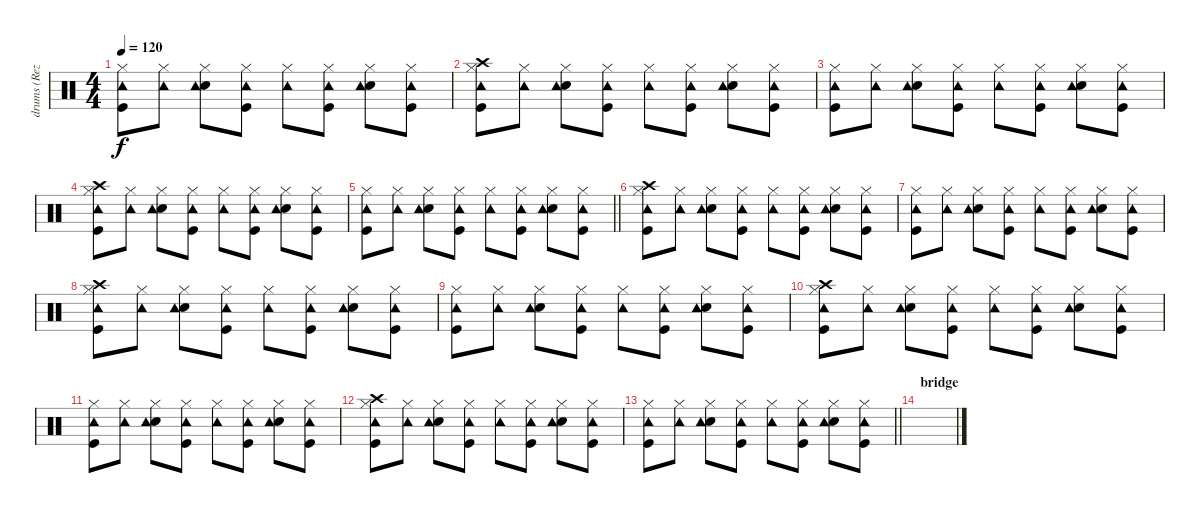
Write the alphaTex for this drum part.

\track ("drums (Reza)" "drums (Rez") {instrument percussion}
\staff {score}
\articulation defaults
\ts (4 4)
\tempo 120
\clef neutral
\ks c
("Hi-Hat (closed)" "Kick (hit)" "Tambourine (hit)").8{dy f} ("Hi-Hat (closed)" "Tambourine (hit)").8 ("Hi-Hat (closed)" "Snare (hit) 2" "Tambourine (hit)").8 ("Hi-Hat (closed)" "Kick (hit)" "Tambourine (hit)").8 ("Hi-Hat (closed)" "Tambourine (hit)").8 ("Hi-Hat (closed)" "Kick (hit)" "Tambourine (hit)").8 ("Hi-Hat (closed)" "Snare (hit) 2" "Tambourine (hit)").8 ("Hi-Hat (closed)" "Kick (hit)" "Tambourine (hit)").8 |
("Hi-Hat (closed)" "Kick (hit)" "Crash high (hit)" "Tambourine (hit)").8 ("Hi-Hat (closed)" "Tambourine (hit)").8 ("Hi-Hat (closed)" "Snare (hit) 2" "Tambourine (hit)").8 ("Hi-Hat (closed)" "Kick (hit)" "Tambourine (hit)").8 ("Hi-Hat (closed)" "Tambourine (hit)").8 ("Hi-Hat (closed)" "Kick (hit)" "Tambourine (hit)").8 ("Hi-Hat (closed)" "Snare (hit) 2" "Tambourine (hit)").8 ("Hi-Hat (closed)" "Kick (hit)" "Tambourine (hit)").8 |
("Hi-Hat (closed)" "Kick (hit)" "Tambourine (hit)").8 ("Hi-Hat (closed)" "Tambourine (hit)").8 ("Hi-Hat (closed)" "Snare (hit) 2" "Tambourine (hit)").8 ("Hi-Hat (closed)" "Kick (hit)" "Tambourine (hit)").8 ("Hi-Hat (closed)" "Tambourine (hit)").8 ("Hi-Hat (closed)" "Kick (hit)" "Tambourine (hit)").8 ("Hi-Hat (closed)" "Snare (hit) 2" "Tambourine (hit)").8 ("Hi-Hat (closed)" "Kick (hit)" "Tambourine (hit)").8 |
("Hi-Hat (closed)" "Kick (hit)" "Crash high (hit)" "Tambourine (hit)").8 ("Hi-Hat (closed)" "Tambourine (hit)").8 ("Hi-Hat (closed)" "Snare (hit) 2" "Tambourine (hit)").8 ("Hi-Hat (closed)" "Kick (hit)" "Tambourine (hit)").8 ("Hi-Hat (closed)" "Tambourine (hit)").8 ("Hi-Hat (closed)" "Kick (hit)" "Tambourine (hit)").8 ("Hi-Hat (closed)" "Snare (hit) 2" "Tambourine (hit)").8 ("Hi-Hat (closed)" "Kick (hit)" "Tambourine (hit)").8 |
\barLineRight lightlight
("Hi-Hat (closed)" "Kick (hit)" "Tambourine (hit)").8 ("Hi-Hat (closed)" "Tambourine (hit)").8 ("Hi-Hat (closed)" "Snare (hit) 2" "Tambourine (hit)").8 ("Hi-Hat (closed)" "Kick (hit)" "Tambourine (hit)").8 ("Hi-Hat (closed)" "Tambourine (hit)").8 ("Hi-Hat (closed)" "Kick (hit)" "Tambourine (hit)").8 ("Hi-Hat (closed)" "Snare (hit) 2" "Tambourine (hit)").8 ("Hi-Hat (closed)" "Kick (hit)" "Tambourine (hit)").8 |
("Hi-Hat (closed)" "Kick (hit)" "Crash high (hit)" "Tambourine (hit)").8 ("Hi-Hat (closed)" "Tambourine (hit)").8 ("Hi-Hat (closed)" "Snare (hit) 2" "Tambourine (hit)").8 ("Hi-Hat (closed)" "Kick (hit)" "Tambourine (hit)").8 ("Hi-Hat (closed)" "Tambourine (hit)").8 ("Hi-Hat (closed)" "Kick (hit)" "Tambourine (hit)").8 ("Hi-Hat (closed)" "Snare (hit) 2" "Tambourine (hit)").8 ("Hi-Hat (closed)" "Kick (hit)" "Tambourine (hit)").8 |
("Hi-Hat (closed)" "Kick (hit)" "Tambourine (hit)").8 ("Hi-Hat (closed)" "Tambourine (hit)").8 ("Hi-Hat (closed)" "Snare (hit) 2" "Tambourine (hit)").8 ("Hi-Hat (closed)" "Kick (hit)" "Tambourine (hit)").8 ("Hi-Hat (closed)" "Tambourine (hit)").8 ("Hi-Hat (closed)" "Kick (hit)" "Tambourine (hit)").8 ("Hi-Hat (closed)" "Snare (hit) 2" "Tambourine (hit)").8 ("Hi-Hat (closed)" "Kick (hit)" "Tambourine (hit)").8 |
("Hi-Hat (closed)" "Kick (hit)" "Crash high (hit)" "Tambourine (hit)").8 ("Hi-Hat (closed)" "Tambourine (hit)").8 ("Hi-Hat (closed)" "Snare (hit) 2" "Tambourine (hit)").8 ("Hi-Hat (closed)" "Kick (hit)" "Tambourine (hit)").8 ("Hi-Hat (closed)" "Tambourine (hit)").8 ("Hi-Hat (closed)" "Kick (hit)" "Tambourine (hit)").8 ("Hi-Hat (closed)" "Snare (hit) 2" "Tambourine (hit)").8 ("Hi-Hat (closed)" "Kick (hit)" "Tambourine (hit)").8 |
("Hi-Hat (closed)" "Kick (hit)" "Tambourine (hit)").8 ("Hi-Hat (closed)" "Tambourine (hit)").8 ("Hi-Hat (closed)" "Snare (hit) 2" "Tambourine (hit)").8 ("Hi-Hat (closed)" "Kick (hit)" "Tambourine (hit)").8 ("Hi-Hat (closed)" "Tambourine (hit)").8 ("Hi-Hat (closed)" "Kick (hit)" "Tambourine (hit)").8 ("Hi-Hat (closed)" "Snare (hit) 2" "Tambourine (hit)").8 ("Hi-Hat (closed)" "Kick (hit)" "Tambourine (hit)").8 |
("Hi-Hat (closed)" "Kick (hit)" "Crash high (hit)" "Tambourine (hit)").8 ("Hi-Hat (closed)" "Tambourine (hit)").8 ("Hi-Hat (closed)" "Snare (hit) 2" "Tambourine (hit)").8 ("Hi-Hat (closed)" "Kick (hit)" "Tambourine (hit)").8 ("Hi-Hat (closed)" "Tambourine (hit)").8 ("Hi-Hat (closed)" "Kick (hit)" "Tambourine (hit)").8 ("Hi-Hat (closed)" "Snare (hit) 2" "Tambourine (hit)").8 ("Hi-Hat (closed)" "Kick (hit)" "Tambourine (hit)").8 |
("Hi-Hat (closed)" "Kick (hit)" "Tambourine (hit)").8 ("Hi-Hat (closed)" "Tambourine (hit)").8 ("Hi-Hat (closed)" "Snare (hit) 2" "Tambourine (hit)").8 ("Hi-Hat (closed)" "Kick (hit)" "Tambourine (hit)").8 ("Hi-Hat (closed)" "Tambourine (hit)").8 ("Hi-Hat (closed)" "Kick (hit)" "Tambourine (hit)").8 ("Hi-Hat (closed)" "Snare (hit) 2" "Tambourine (hit)").8 ("Hi-Hat (closed)" "Kick (hit)" "Tambourine (hit)").8 |
("Hi-Hat (closed)" "Kick (hit)" "Crash high (hit)" "Tambourine (hit)").8 ("Hi-Hat (closed)" "Tambourine (hit)").8 ("Hi-Hat (closed)" "Snare (hit) 2" "Tambourine (hit)").8 ("Hi-Hat (closed)" "Kick (hit)" "Tambourine (hit)").8 ("Hi-Hat (closed)" "Tambourine (hit)").8 ("Hi-Hat (closed)" "Kick (hit)" "Tambourine (hit)").8 ("Hi-Hat (closed)" "Snare (hit) 2" "Tambourine (hit)").8 ("Hi-Hat (closed)" "Kick (hit)" "Tambourine (hit)").8 |
\barLineRight lightlight
("Hi-Hat (closed)" "Kick (hit)" "Tambourine (hit)").8 ("Hi-Hat (closed)" "Tambourine (hit)").8 ("Hi-Hat (closed)" "Snare (hit) 2" "Tambourine (hit)").8 ("Hi-Hat (closed)" "Kick (hit)" "Tambourine (hit)").8 ("Hi-Hat (closed)" "Tambourine (hit)").8 ("Hi-Hat (closed)" "Kick (hit)" "Tambourine (hit)").8 ("Hi-Hat (closed)" "Snare (hit) 2" "Tambourine (hit)").8 ("Hi-Hat (closed)" "Kick (hit)" "Tambourine (hit)").8 |
\section ("" "bridge")
